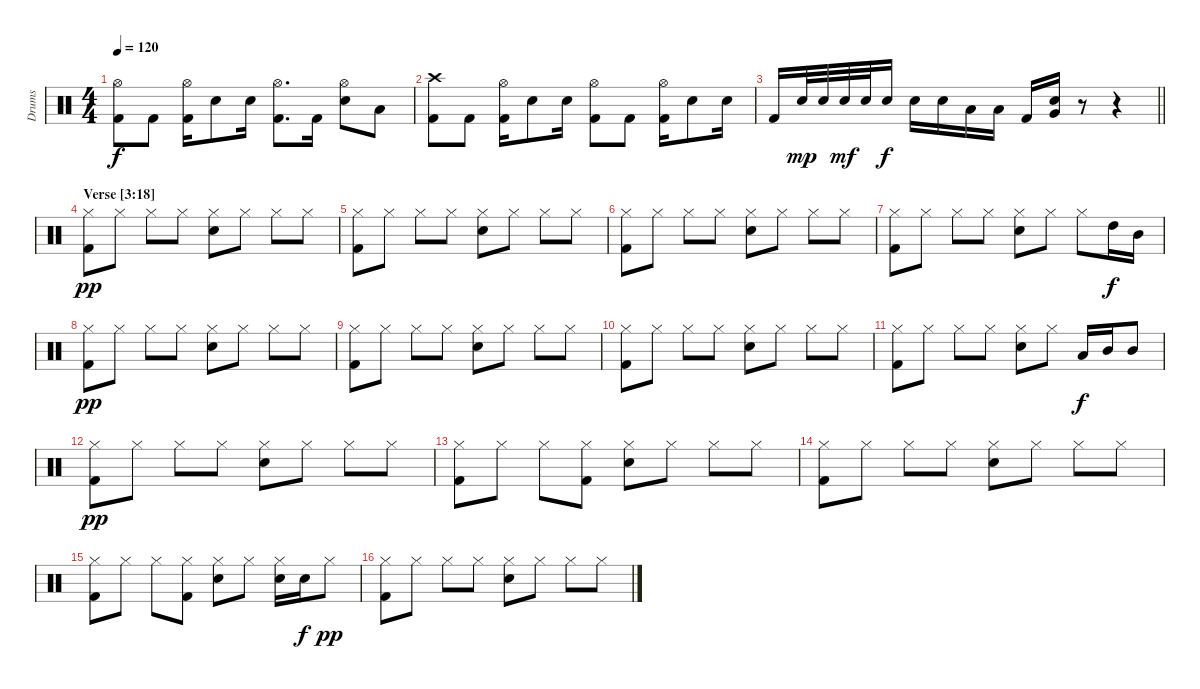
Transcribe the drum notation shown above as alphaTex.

\track ("Drums" "Drums") {instrument percussion}
\staff {score}
\articulation defaults
\ts (4 4)
\tempo 120
\clef neutral
\ks c
("Hi-Hat (open)" "Kick (hit) 2").8{dy f} "Kick (hit) 2".8 ("Hi-Hat (open)" "Kick (hit) 2").16 "Snare (hit) 2".8 "Snare (hit) 2".16 ("Hi-Hat (open)" "Kick (hit) 2").8{d} "Kick (hit) 2".16 ("Hi-Hat (open)" "Snare (hit) 2").8 "Low Tom (hit)".8 |
("Crash high (hit)" "Kick (hit) 2").8 "Kick (hit) 2".8 ("Hi-Hat (open)" "Kick (hit) 2").16 "Snare (hit) 2".8 "Snare (hit) 2".16 ("Hi-Hat (open)" "Kick (hit) 2").8 "Kick (hit) 2".8 ("Hi-Hat (open)" "Kick (hit) 2").16 "Snare (hit) 2".8 "Snare (hit) 2".16 |
\barLineRight lightlight "Kick (hit) 2".16 "Snare (hit) 2".32{dy mp} "Snare (hit) 2".32 "Snare (hit) 2".32{dy mf} "Snare (hit) 2".32 "Snare (hit) 2".16{dy f} "Snare (hit) 2".16 "Snare (hit) 2".16 "Low Tom (hit)".16 "Low Tom (hit)".16 "Kick (hit) 2".16
("Very Low Tom (hit)" "Snare (hit) 2").16 r.8 r.4 |
\section ("" "Verse [3:18]")
("Hi-Hat (closed)" "Kick (hit) 2").8{dy pp} "Hi-Hat (closed)".8 "Hi-Hat (closed)".8 "Hi-Hat (closed)".8 ("Hi-Hat (closed)" "Snare (hit) 2").8 "Hi-Hat (closed)".8 "Hi-Hat (closed)".8 "Hi-Hat (closed)".8 |
("Hi-Hat (closed)" "Kick (hit) 2").8 "Hi-Hat (closed)".8 "Hi-Hat (closed)".8 "Hi-Hat (closed)".8 ("Hi-Hat (closed)" "Snare (hit) 2").8 "Hi-Hat (closed)".8 "Hi-Hat (closed)".8 "Hi-Hat (closed)".8 |
("Hi-Hat (closed)" "Kick (hit) 2").8 "Hi-Hat (closed)".8 "Hi-Hat (closed)".8 "Hi-Hat (closed)".8 ("Hi-Hat (closed)" "Snare (hit) 2").8 "Hi-Hat (closed)".8 "Hi-Hat (closed)".8 "Hi-Hat (closed)".8 |
("Hi-Hat (closed)" "Kick (hit) 2").8 "Hi-Hat (closed)".8 "Hi-Hat (closed)".8 "Hi-Hat (closed)".8 ("Hi-Hat (closed)" "Snare (hit) 2").8 "Hi-Hat (closed)".8 "Hi-Hat (closed)".8 "High Tom (hit)".16{dy f} "Mid Tom (hit)".16 |
("Hi-Hat (closed)" "Kick (hit) 2").8{dy pp} "Hi-Hat (closed)".8 "Hi-Hat (closed)".8 "Hi-Hat (closed)".8 ("Hi-Hat (closed)" "Snare (hit) 2").8 "Hi-Hat (closed)".8 "Hi-Hat (closed)".8 "Hi-Hat (closed)".8 |
("Hi-Hat (closed)" "Kick (hit) 2").8 "Hi-Hat (closed)".8 "Hi-Hat (closed)".8 "Hi-Hat (closed)".8 ("Hi-Hat (closed)" "Snare (hit) 2").8 "Hi-Hat (closed)".8 "Hi-Hat (closed)".8 "Hi-Hat (closed)".8 |
("Hi-Hat (closed)" "Kick (hit) 2").8 "Hi-Hat (closed)".8 "Hi-Hat (closed)".8 "Hi-Hat (closed)".8 ("Hi-Hat (closed)" "Snare (hit) 2").8 "Hi-Hat (closed)".8 "Hi-Hat (closed)".8 "Hi-Hat (closed)".8 |
("Hi-Hat (closed)" "Kick (hit) 2").8 "Hi-Hat (closed)".8 "Hi-Hat (closed)".8 "Hi-Hat (closed)".8 ("Hi-Hat (closed)" "Snare (hit) 2").8 "Hi-Hat (closed)".8 "Low Tom (hit)".16{dy f} "Mid Tom (hit)".16 "Mid Tom (hit)".8 |
("Hi-Hat (closed)" "Kick (hit) 2").8{dy pp} "Hi-Hat (closed)".8 "Hi-Hat (closed)".8 "Hi-Hat (closed)".8 ("Hi-Hat (closed)" "Snare (hit) 2").8 "Hi-Hat (closed)".8 "Hi-Hat (closed)".8 "Hi-Hat (closed)".8 |
("Hi-Hat (closed)" "Kick (hit) 2").8 "Hi-Hat (closed)".8 "Hi-Hat (closed)".8 ("Hi-Hat (closed)" "Kick (hit) 2").8 ("Hi-Hat (closed)" "Snare (hit) 2").8 "Hi-Hat (closed)".8 "Hi-Hat (closed)".8 "Hi-Hat (closed)".8 |
("Hi-Hat (closed)" "Kick (hit) 2").8 "Hi-Hat (closed)".8 "Hi-Hat (closed)".8 "Hi-Hat (closed)".8 ("Hi-Hat (closed)" "Snare (hit) 2").8 "Hi-Hat (closed)".8 "Hi-Hat (closed)".8 "Hi-Hat (closed)".8 |
("Hi-Hat (closed)" "Kick (hit) 2").8 "Hi-Hat (closed)".8 "Hi-Hat (closed)".8 ("Hi-Hat (closed)" "Kick (hit) 2").8 ("Hi-Hat (closed)" "Snare (hit) 2").8 "Hi-Hat (closed)".8 ("Hi-Hat (closed)" "Snare (hit) 2").16 "Snare (hit) 2".16{dy f} "Hi-Hat (closed)".8{dy pp} |
("Hi-Hat (closed)" "Kick (hit) 2").8 "Hi-Hat (closed)".8 "Hi-Hat (closed)".8 "Hi-Hat (closed)".8 ("Hi-Hat (closed)" "Snare (hit) 2").8 "Hi-Hat (closed)".8 "Hi-Hat (closed)".8 "Hi-Hat (closed)".8
